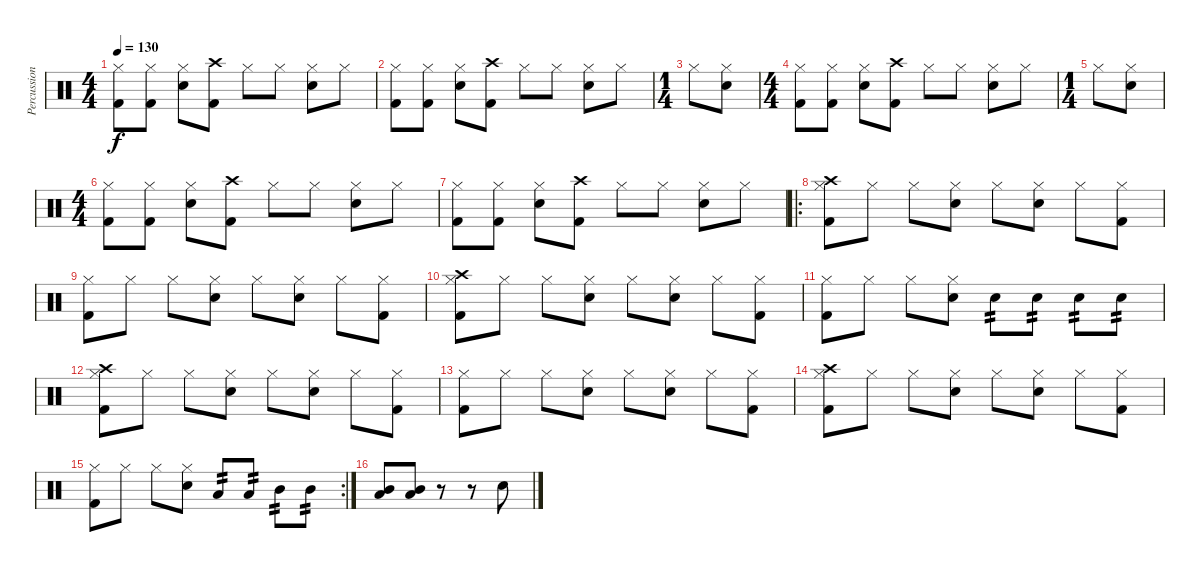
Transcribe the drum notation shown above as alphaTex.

\track ("Percussion" "Percussion") {instrument percussion}
\staff {score}
\articulation defaults
\ts (4 4)
\tempo 130
\clef neutral
\ks c
("Hi-Hat (closed)" "Kick (hit) 2").8{dy f} ("Hi-Hat (closed)" "Kick (hit) 2").8 ("Hi-Hat (closed)" "Snare (hit) 2").8 ("Crash high (hit)" "Kick (hit) 2").8 "Hi-Hat (closed)".8 "Hi-Hat (closed)".8 ("Hi-Hat (closed)" "Snare (hit) 2").8 "Hi-Hat (closed)".8 |
("Hi-Hat (closed)" "Kick (hit) 2").8 ("Hi-Hat (closed)" "Kick (hit) 2").8 ("Hi-Hat (closed)" "Snare (hit) 2").8 ("Crash high (hit)" "Kick (hit) 2").8 "Hi-Hat (closed)".8 "Hi-Hat (closed)".8 ("Hi-Hat (closed)" "Snare (hit) 2").8 "Hi-Hat (closed)".8 |
\ts (1 4)
"Hi-Hat (closed)".8 ("Hi-Hat (closed)" "Snare (hit) 2").8 |
\ts (4 4)
("Hi-Hat (closed)" "Kick (hit) 2").8 ("Hi-Hat (closed)" "Kick (hit) 2").8 ("Hi-Hat (closed)" "Snare (hit) 2").8 ("Crash high (hit)" "Kick (hit) 2").8 "Hi-Hat (closed)".8 "Hi-Hat (closed)".8 ("Hi-Hat (closed)" "Snare (hit) 2").8 "Hi-Hat (closed)".8 |
\ts (1 4)
"Hi-Hat (closed)".8 ("Hi-Hat (closed)" "Snare (hit) 2").8 |
\ts (4 4)
("Hi-Hat (closed)" "Kick (hit) 2").8 ("Hi-Hat (closed)" "Kick (hit) 2").8 ("Hi-Hat (closed)" "Snare (hit) 2").8 ("Crash high (hit)" "Kick (hit) 2").8 "Hi-Hat (closed)".8 "Hi-Hat (closed)".8 ("Hi-Hat (closed)" "Snare (hit) 2").8 "Hi-Hat (closed)".8 |
("Hi-Hat (closed)" "Kick (hit) 2").8 ("Hi-Hat (closed)" "Kick (hit) 2").8 ("Hi-Hat (closed)" "Snare (hit) 2").8 ("Crash high (hit)" "Kick (hit) 2").8 "Hi-Hat (closed)".8 "Hi-Hat (closed)".8 ("Hi-Hat (closed)" "Snare (hit) 2").8 "Hi-Hat (closed)".8 |
\ro
("Hi-Hat (closed)" "Kick (hit) 2" "Crash high (hit)").8 "Hi-Hat (closed)".8 "Hi-Hat (closed)".8 ("Hi-Hat (closed)" "Snare (hit) 2").8 "Hi-Hat (closed)".8 ("Hi-Hat (closed)" "Snare (hit) 2").8 "Hi-Hat (closed)".8 ("Hi-Hat (closed)" "Kick (hit) 2").8 |
("Hi-Hat (closed)" "Kick (hit) 2").8 "Hi-Hat (closed)".8 "Hi-Hat (closed)".8 ("Hi-Hat (closed)" "Snare (hit) 2").8 "Hi-Hat (closed)".8 ("Hi-Hat (closed)" "Snare (hit) 2").8 "Hi-Hat (closed)".8 ("Hi-Hat (closed)" "Kick (hit) 2").8 |
("Hi-Hat (closed)" "Kick (hit) 2" "Crash high (hit)").8 "Hi-Hat (closed)".8 "Hi-Hat (closed)".8 ("Hi-Hat (closed)" "Snare (hit) 2").8 "Hi-Hat (closed)".8 ("Hi-Hat (closed)" "Snare (hit) 2").8 "Hi-Hat (closed)".8 ("Hi-Hat (closed)" "Kick (hit) 2").8 |
("Hi-Hat (closed)" "Kick (hit) 2").8 "Hi-Hat (closed)".8 "Hi-Hat (closed)".8 ("Hi-Hat (closed)" "Snare (hit) 2").8 "Snare (hit) 2".8{tp 2} "Snare (hit) 2".8{tp 2} "Snare (hit) 2".8{tp 2} "Snare (hit) 2".8{tp 2} |
("Hi-Hat (closed)" "Kick (hit) 2" "Crash high (hit)").8 "Hi-Hat (closed)".8 "Hi-Hat (closed)".8 ("Hi-Hat (closed)" "Snare (hit) 2").8 "Hi-Hat (closed)".8 ("Hi-Hat (closed)" "Snare (hit) 2").8 "Hi-Hat (closed)".8 ("Hi-Hat (closed)" "Kick (hit) 2").8 |
("Hi-Hat (closed)" "Kick (hit) 2").8 "Hi-Hat (closed)".8 "Hi-Hat (closed)".8 ("Hi-Hat (closed)" "Snare (hit) 2").8 "Hi-Hat (closed)".8 ("Hi-Hat (closed)" "Snare (hit) 2").8 "Hi-Hat (closed)".8 ("Hi-Hat (closed)" "Kick (hit) 2").8 |
("Hi-Hat (closed)" "Kick (hit) 2" "Crash high (hit)").8 "Hi-Hat (closed)".8 "Hi-Hat (closed)".8 ("Hi-Hat (closed)" "Snare (hit) 2").8 "Hi-Hat (closed)".8 ("Hi-Hat (closed)" "Snare (hit) 2").8 "Hi-Hat (closed)".8 ("Hi-Hat (closed)" "Kick (hit) 2").8 |
\rc 2
("Hi-Hat (closed)" "Kick (hit) 2").8 "Hi-Hat (closed)".8 "Hi-Hat (closed)".8 ("Hi-Hat (closed)" "Snare (hit) 2").8 "Low Tom (hit)".8{tp 2} "Low Tom (hit)".8{tp 2} "Mid Tom (hit)".8{tp 2} "Mid Tom (hit)".8{tp 2} |
("Low Tom (hit)" "Mid Tom (hit)").8 ("Low Tom (hit)" "Mid Tom (hit)").8 r.8 r.8 "Snare (hit) 2".8
